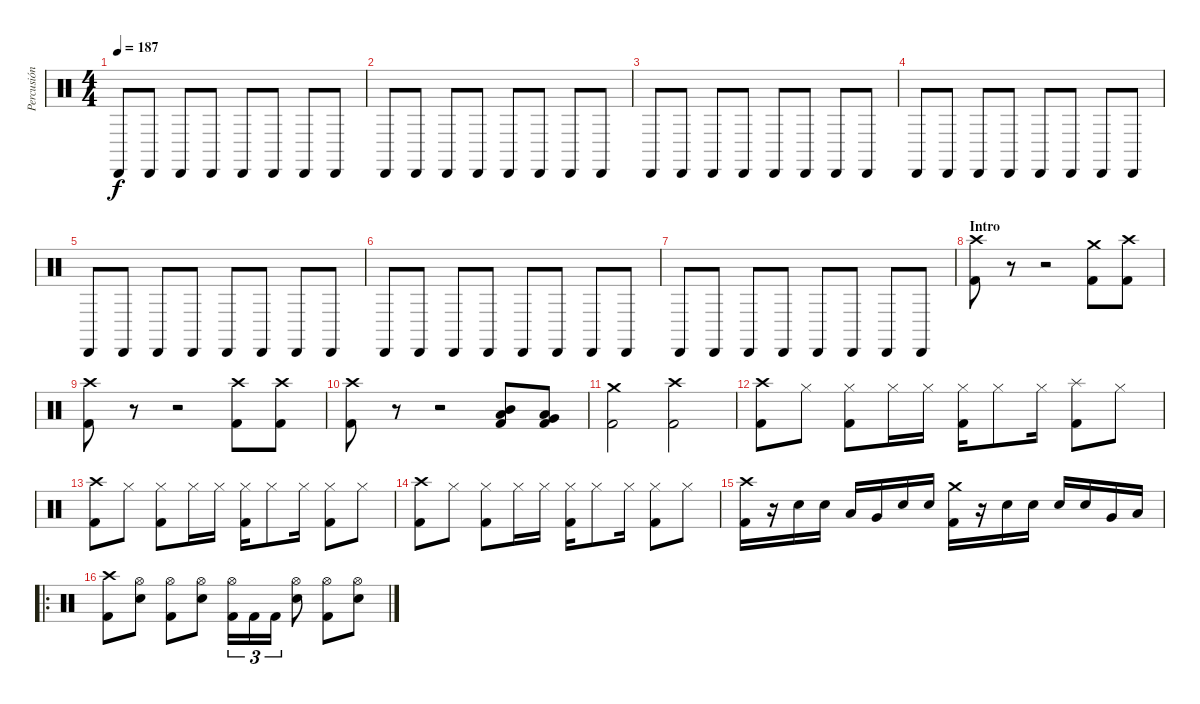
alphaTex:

\track ("Percusión" "Percusión") {instrument percussion}
\staff {score}
\articulation defaults
\ts (4 4)
\tempo 187
\clef neutral
\ks c "Cabasa (hit)".8{dy f} "Cabasa (hit)".8 "Cabasa (hit)".8 "Cabasa (hit)".8 "Cabasa (hit)".8 "Cabasa (hit)".8 "Cabasa (hit)".8 "Cabasa (hit)".8
|
"Cabasa (hit)".8 "Cabasa (hit)".8 "Cabasa (hit)".8 "Cabasa (hit)".8 "Cabasa (hit)".8 "Cabasa (hit)".8 "Cabasa (hit)".8 "Cabasa (hit)".8 |
"Cabasa (hit)".8 "Cabasa (hit)".8 "Cabasa (hit)".8 "Cabasa (hit)".8 "Cabasa (hit)".8 "Cabasa (hit)".8 "Cabasa (hit)".8 "Cabasa (hit)".8 |
"Cabasa (hit)".8 "Cabasa (hit)".8 "Cabasa (hit)".8 "Cabasa (hit)".8 "Cabasa (hit)".8 "Cabasa (hit)".8 "Cabasa (hit)".8 "Cabasa (hit)".8 |
"Cabasa (hit)".8 "Cabasa (hit)".8 "Cabasa (hit)".8 "Cabasa (hit)".8 "Cabasa (hit)".8 "Cabasa (hit)".8 "Cabasa (hit)".8 "Cabasa (hit)".8 |
"Cabasa (hit)".8 "Cabasa (hit)".8 "Cabasa (hit)".8 "Cabasa (hit)".8 "Cabasa (hit)".8 "Cabasa (hit)".8 "Cabasa (hit)".8 "Cabasa (hit)".8 |
"Cabasa (hit)".8 "Cabasa (hit)".8 "Cabasa (hit)".8 "Cabasa (hit)".8 "Cabasa (hit)".8 "Cabasa (hit)".8 "Cabasa (hit)".8 "Cabasa (hit)".8 |
\section ("" "Intro")
("Crash high (hit)" "Kick (hit) 2").8 r.8 r.2 ("Crash medium (hit)" "Kick (hit) 2").8 ("Crash high (hit)" "Kick (hit) 2").8 |
("Crash high (hit)" "Kick (hit) 2").8 r.8 r.2 ("Crash high (hit)" "Kick (hit) 2").8 ("Crash high (hit)" "Kick (hit) 2").8 |
("Crash high (hit)" "Kick (hit) 2").8 r.8 r.2 ("Low Tom (hit)" "Mid Tom (hit)" "Kick (hit) 2").8 ("Very Low Tom (hit)" "Low Tom (hit)" "Kick (hit) 2").8 |
("Crash medium (hit)" "Kick (hit) 2").2 ("Crash high (hit)" "Kick (hit) 2").2 |
("Crash high (hit)" "Kick (hit) 2").8 "Hi-Hat (closed)".8 ("Hi-Hat (closed)" "Kick (hit) 2").8 "Hi-Hat (closed)".16 "Hi-Hat (closed)".16 ("Hi-Hat (closed)" "Kick (hit) 2").16 "Hi-Hat (closed)".8 "Hi-Hat (closed)".16 ("Splash (hit)" "Kick (hit) 2").8 "Hi-Hat (closed)".8 |
("Crash high (hit)" "Kick (hit) 2").8 "Hi-Hat (closed)".8 ("Hi-Hat (closed)" "Kick (hit) 2").8 "Hi-Hat (closed)".16 "Hi-Hat (closed)".16 ("Hi-Hat (closed)" "Kick (hit) 2").16 "Hi-Hat (closed)".8 "Hi-Hat (closed)".16 ("Hi-Hat (closed)" "Kick (hit) 2").8 "Hi-Hat (closed)".8 |
("Crash high (hit)" "Kick (hit) 2").8 "Hi-Hat (closed)".8 ("Hi-Hat (closed)" "Kick (hit) 2").8 "Hi-Hat (closed)".16 "Hi-Hat (closed)".16 ("Hi-Hat (closed)" "Kick (hit) 2").16 "Hi-Hat (closed)".8 "Hi-Hat (closed)".16 ("Hi-Hat (closed)" "Kick (hit) 2").8 "Hi-Hat (closed)".8 |
("Crash high (hit)" "Kick (hit) 2").16 r.16 "Electric Snare (hit)".16 "Electric Snare (hit)".16 "Low Tom (hit)".16 "Very Low Tom (hit)".16 "Electric Snare (hit)".16 "Electric Snare (hit)".16 ("Crash medium (hit)" "Kick (hit) 2").16 r.16 "Electric Snare (hit)".16 "Electric Snare (hit)".16 "Electric Snare (hit)".16 "Electric Snare (hit)".16 "Very Low Tom (hit)".16 "Low Floor Tom (hit)".16 |
\ro
("Crash high (hit)" "Kick (hit) 2").8 ("Hi-Hat (open)" "Electric Snare (hit)").8 ("Hi-Hat (open)" "Kick (hit) 2").8 ("Hi-Hat (open)" "Electric Snare (hit)").8 ("Hi-Hat (open)" "Kick (hit) 2").16{tu (3 2)} "Kick (hit) 2".16{tu (3 2)} "Kick (hit) 2".16{tu (3 2)} ("Hi-Hat (open)" "Electric Snare (hit)").8 ("Hi-Hat (open)" "Kick (hit) 2").8 ("Hi-Hat (open)" "Electric Snare (hit)").8
